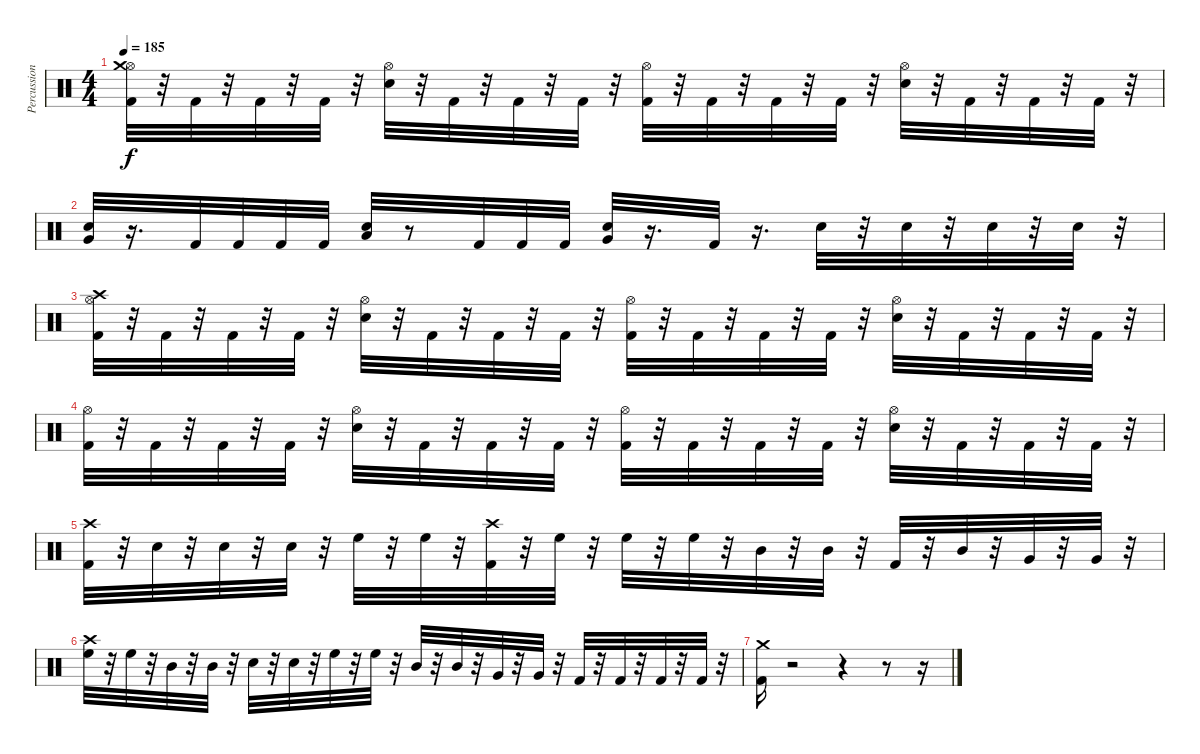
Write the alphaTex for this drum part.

\track ("Percussion" "Percussion") {instrument percussion}
\staff {score}
\articulation defaults
\ts (4 4)
\tempo 185
\clef neutral
\ks c
("Kick (hit) 2" "Hi-Hat (open)" "Crash medium (hit)").32{dy f} r.32 "Kick (hit) 2".32 r.32 "Kick (hit) 2".32 r.32 "Kick (hit) 2".32 r.32 ("Snare (hit) 2" "Hi-Hat (open)").32 r.32 "Kick (hit) 2".32 r.32 "Kick (hit) 2".32 r.32 "Kick (hit) 2".32 r.32 ("Kick (hit) 2" "Hi-Hat (open)").32 r.32 "Kick (hit) 2".32 r.32 "Kick (hit) 2".32 r.32 "Kick (hit) 2".32 r.32 ("Snare (hit) 2" "Hi-Hat (open)").32 r.32 "Kick (hit) 2".32 r.32 "Kick (hit) 2".32 r.32 "Kick (hit) 2".32 r.32 |
("Snare (hit) 2" "Very Low Tom (hit)").32 r.16{d} "Kick (hit) 2".32 "Kick (hit) 2".32 "Kick (hit) 2".32 "Kick (hit) 2".32 ("Snare (hit) 2" "Low Floor Tom (hit)").32 r.8 "Kick (hit) 2".32 "Kick (hit) 2".32 "Kick (hit) 2".32 ("Snare (hit) 2" "Very Low Tom (hit)").32 r.16{d} "Kick (hit) 2".32 r.16{d} "Snare (hit) 2".32 r.32 "Snare (hit) 2".32 r.32 "Snare (hit) 2".32 r.32 "Snare (hit) 2".32 r.32 |
("Kick (hit) 2" "Hi-Hat (open)" "Crash high (hit)").32 r.32 "Kick (hit) 2".32 r.32 "Kick (hit) 2".32 r.32 "Kick (hit) 2".32 r.32 ("Snare (hit) 2" "Hi-Hat (open)").32 r.32 "Kick (hit) 2".32 r.32 "Kick (hit) 2".32 r.32 "Kick (hit) 2".32 r.32 ("Kick (hit) 2" "Hi-Hat (open)").32 r.32 "Kick (hit) 2".32 r.32 "Kick (hit) 2".32 r.32 "Kick (hit) 2".32 r.32 ("Snare (hit) 2" "Hi-Hat (open)").32 r.32 "Kick (hit) 2".32 r.32 "Kick (hit) 2".32 r.32 "Kick (hit) 2".32 r.32 |
("Kick (hit) 2" "Hi-Hat (open)").32 r.32 "Kick (hit) 2".32 r.32 "Kick (hit) 2".32 r.32 "Kick (hit) 2".32 r.32 ("Snare (hit) 2" "Hi-Hat (open)").32 r.32 "Kick (hit) 2".32 r.32 "Kick (hit) 2".32 r.32 "Kick (hit) 2".32 r.32 ("Kick (hit) 2" "Hi-Hat (open)").32 r.32 "Kick (hit) 2".32 r.32 "Kick (hit) 2".32 r.32 "Kick (hit) 2".32 r.32 ("Snare (hit) 2" "Hi-Hat (open)").32 r.32 "Kick (hit) 2".32 r.32 "Kick (hit) 2".32 r.32 "Kick (hit) 2".32 r.32 |
("Kick (hit) 2" "Crash high (hit)").32 r.32 "Snare (hit) 2".32 r.32 "Snare (hit) 2".32 r.32 "Snare (hit) 2".32 r.32 "High Floor Tom (hit)".32 r.32 "High Floor Tom (hit)".32 r.32 ("Kick (hit) 2" "Crash high (hit)").32 r.32 "High Floor Tom (hit)".32 r.32 "High Floor Tom (hit)".32 r.32 "High Floor Tom (hit)".32 r.32 "Mid Tom (hit)".32 r.32 "Mid Tom (hit)".32 r.32 "Kick (hit) 2".32 r.32 "Mid Tom (hit)".32 r.32 "Very Low Tom (hit)".32 r.32 "Very Low Tom (hit)".32 r.32 |
("Crash high (hit)" "High Floor Tom (hit)").32 r.32 "High Floor Tom (hit)".32 r.32 "Mid Tom (hit)".32 r.32 "Mid Tom (hit)".32 r.32 "Snare (hit) 2".32 r.32 "Snare (hit) 2".32 r.32 "High Floor Tom (hit)".32 r.32 "High Floor Tom (hit)".32 r.32 "Mid Tom (hit)".32 r.32 "Mid Tom (hit)".32 r.32 "Very Low Tom (hit)".32 r.32 "Very Low Tom (hit)".32 r.32 "Kick (hit) 2".32 r.32 "Kick (hit) 2".32 r.32 "Kick (hit) 2".32 r.32 "Kick (hit) 2".32 r.32 |
("Kick (hit) 2" "Crash medium (hit)").16 r.2 r.4 r.8 r.16
